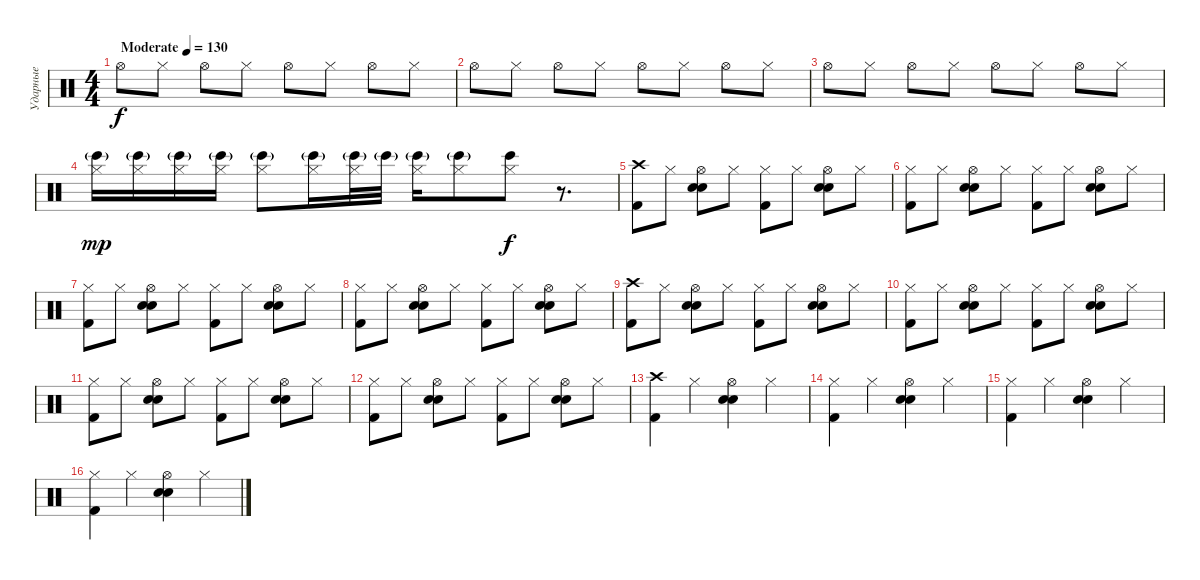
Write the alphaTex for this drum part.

\track ("Ударные" "Ударные") {instrument percussion}
\staff {score}
\articulation defaults
\ts (4 4)
\tempo (130 "Moderate")
\clef neutral
\ks c "Hi-Hat (open)".8{dy f} "Hi-Hat (closed)".8 "Hi-Hat (open)".8 "Hi-Hat (closed)".8 "Hi-Hat (open)".8 "Hi-Hat (closed)".8 "Hi-Hat (open)".8 "Hi-Hat (closed)".8
|
"Hi-Hat (open)".8 "Hi-Hat (closed)".8 "Hi-Hat (open)".8 "Hi-Hat (closed)".8 "Hi-Hat (open)".8 "Hi-Hat (closed)".8 "Hi-Hat (open)".8 "Hi-Hat (closed)".8 |
"Hi-Hat (open)".8 "Hi-Hat (closed)".8 "Hi-Hat (open)".8 "Hi-Hat (closed)".8 "Hi-Hat (open)".8 "Hi-Hat (closed)".8 "Hi-Hat (open)".8 "Hi-Hat (closed)".8 |
("Bongo High (hit)"{g} "Hi-Hat (closed)").16{dy mp} ("Bongo High (hit)"{g} "Hi-Hat (closed)").16 ("Bongo High (hit)"{g} "Hi-Hat (closed)").16 ("Bongo High (hit)"{g} "Hi-Hat (closed)").16 ("Bongo High (hit)"{g} "Hi-Hat (closed)").8 ("Bongo High (hit)"{g} "Hi-Hat (closed)").16 ("Bongo High (hit)"{g} "Hi-Hat (closed)").32 "Bongo High (hit)"{g}.32 ("Bongo High (hit)"{g} "Hi-Hat (closed)").16 ("Bongo High (hit)"{g} "Hi-Hat (closed)").8 ("Bongo High (hit)" "Hi-Hat (closed)").8{dy f} r.8{d} |
("Crash high (hit)" "Kick (hit) 2").8{volume 14} "Hi-Hat (closed)".8 ("Hi-Hat (open)" "Hand Clap (hit)" "Snare (hit) 2").8 "Hi-Hat (closed)".8 ("Hi-Hat (closed)" "Kick (hit) 2").8 "Hi-Hat (closed)".8 ("Hi-Hat (open)" "Hand Clap (hit)" "Snare (hit) 2").8 "Hi-Hat (closed)".8 |
("Hi-Hat (closed)" "Kick (hit) 2").8 "Hi-Hat (closed)".8 ("Hi-Hat (open)" "Hand Clap (hit)" "Snare (hit) 2").8 "Hi-Hat (closed)".8 ("Hi-Hat (closed)" "Kick (hit) 2").8 "Hi-Hat (closed)".8 ("Hi-Hat (open)" "Hand Clap (hit)" "Snare (hit) 2").8 "Hi-Hat (closed)".8 |
("Hi-Hat (closed)" "Kick (hit) 2").8 "Hi-Hat (closed)".8 ("Hi-Hat (open)" "Hand Clap (hit)" "Snare (hit) 2").8 "Hi-Hat (closed)".8 ("Hi-Hat (closed)" "Kick (hit) 2").8 "Hi-Hat (closed)".8 ("Hi-Hat (open)" "Hand Clap (hit)" "Snare (hit) 2").8 "Hi-Hat (closed)".8 |
("Hi-Hat (closed)" "Kick (hit) 2").8 "Hi-Hat (closed)".8 ("Hi-Hat (open)" "Hand Clap (hit)" "Snare (hit) 2").8 "Hi-Hat (closed)".8 ("Hi-Hat (closed)" "Kick (hit) 2").8 "Hi-Hat (closed)".8 ("Hi-Hat (open)" "Hand Clap (hit)" "Snare (hit) 2").8 "Hi-Hat (closed)".8 |
("Crash high (hit)" "Kick (hit) 2").8 "Hi-Hat (closed)".8 ("Hi-Hat (open)" "Hand Clap (hit)" "Snare (hit) 2").8 "Hi-Hat (closed)".8 ("Hi-Hat (closed)" "Kick (hit) 2").8 "Hi-Hat (closed)".8 ("Hi-Hat (open)" "Hand Clap (hit)" "Snare (hit) 2").8 "Hi-Hat (closed)".8 |
("Hi-Hat (closed)" "Kick (hit) 2").8 "Hi-Hat (closed)".8 ("Hi-Hat (open)" "Hand Clap (hit)" "Snare (hit) 2").8 "Hi-Hat (closed)".8 ("Hi-Hat (closed)" "Kick (hit) 2").8 "Hi-Hat (closed)".8 ("Hi-Hat (open)" "Hand Clap (hit)" "Snare (hit) 2").8 "Hi-Hat (closed)".8 |
("Hi-Hat (closed)" "Kick (hit) 2").8 "Hi-Hat (closed)".8 ("Hi-Hat (open)" "Hand Clap (hit)" "Snare (hit) 2").8 "Hi-Hat (closed)".8 ("Hi-Hat (closed)" "Kick (hit) 2").8 "Hi-Hat (closed)".8 ("Hi-Hat (open)" "Hand Clap (hit)" "Snare (hit) 2").8 "Hi-Hat (closed)".8 |
("Hi-Hat (closed)" "Kick (hit) 2").8 "Hi-Hat (closed)".8 ("Hi-Hat (open)" "Hand Clap (hit)" "Snare (hit) 2").8 "Hi-Hat (closed)".8 ("Hi-Hat (closed)" "Kick (hit) 2").8 "Hi-Hat (closed)".8 ("Hi-Hat (open)" "Hand Clap (hit)" "Snare (hit) 2").8 "Hi-Hat (closed)".8 |
("Crash high (hit)" "Kick (hit) 2").4 "Hi-Hat (closed)".4 ("Hi-Hat (open)" "Hand Clap (hit)" "Snare (hit) 2").4 "Hi-Hat (closed)".4 |
("Hi-Hat (closed)" "Kick (hit) 2").4 "Hi-Hat (closed)".4 ("Hi-Hat (open)" "Hand Clap (hit)" "Snare (hit) 2").4 "Hi-Hat (closed)".4 |
("Hi-Hat (closed)" "Kick (hit) 2").4 "Hi-Hat (closed)".4 ("Hi-Hat (open)" "Hand Clap (hit)" "Snare (hit) 2").4 "Hi-Hat (closed)".4 |
("Hi-Hat (closed)" "Kick (hit) 2").4 "Hi-Hat (closed)".4 ("Hi-Hat (open)" "Hand Clap (hit)" "Snare (hit) 2").4 "Hi-Hat (closed)".4
